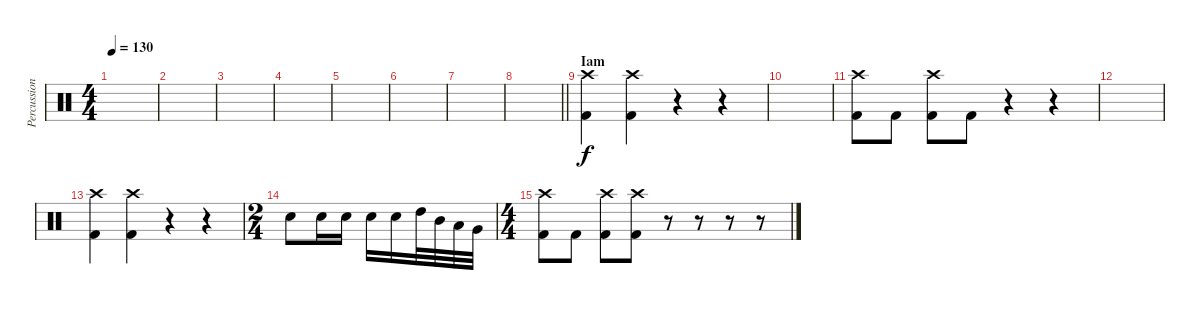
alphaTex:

\track ("Percussion" "Percussion") {instrument percussion}
\staff {score}
\articulation defaults
\ts (4 4)
\tempo 130
\clef neutral
\ks c
|
|
|
|
|
|
|
\barLineRight lightlight
|
\section ("" "Iam ")
("Crash high (hit)" "Kick (hit) 2").4 ("Crash high (hit)" "Kick (hit) 2").4 r.4 r.4 |
|
("Crash high (hit)" "Kick (hit) 2").8 "Kick (hit) 2".8 ("Crash high (hit)" "Kick (hit) 2").8 "Kick (hit) 2".8 r.4 r.4 |
|
("Crash high (hit)" "Kick (hit) 2").4 ("Crash high (hit)" "Kick (hit) 2").4 r.4 r.4 |
\ts (2 4)
"Electric Snare (hit)".8 "Electric Snare (hit)".16 "Electric Snare (hit)".16 "Electric Snare (hit)".16 "Electric Snare (hit)".16 "High Tom (hit)".32 "Mid Tom (hit)".32 "Low Tom (hit)".32 "Very Low Tom (hit)".32 |
\ts (4 4)
("Crash high (hit)" "Kick (hit) 2").8 "Kick (hit) 2".8 ("Crash high (hit)" "Kick (hit) 2").8 ("Crash high (hit)" "Kick (hit) 2").8 r.8 r.8 r.8 r.8
